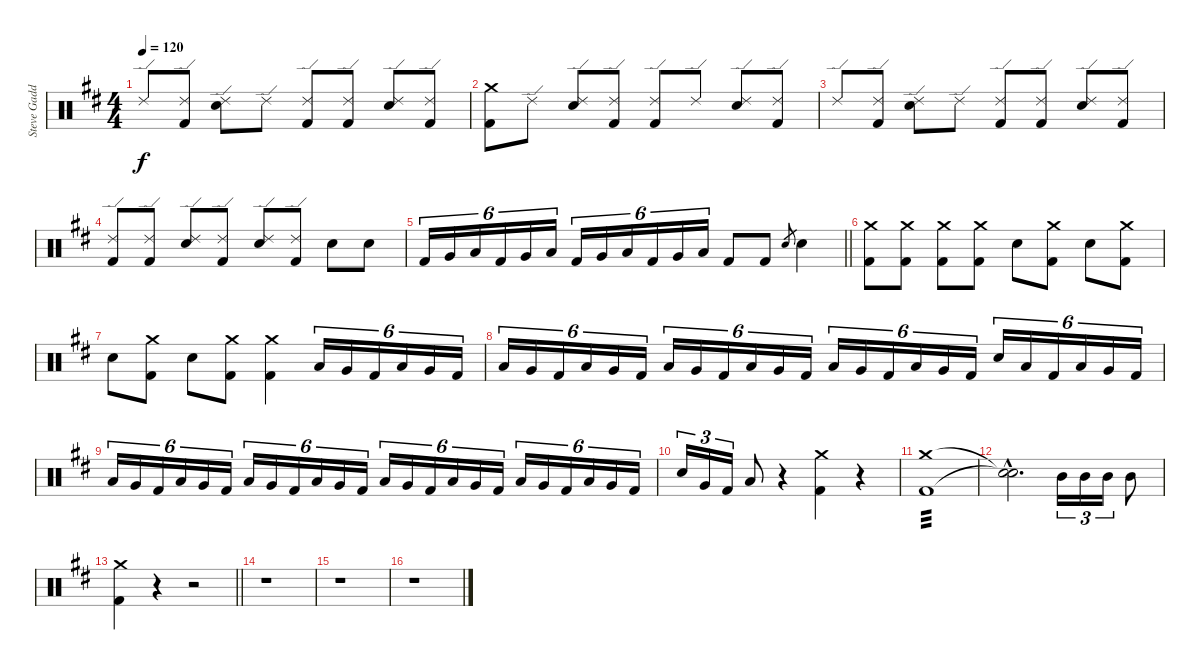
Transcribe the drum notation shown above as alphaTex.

\track ("Steve Gadd Drums" "Steve Gadd") {instrument percussion}
\staff {score}
\articulation defaults
\ts (4 4)
\tempo 120
\clef neutral
\ks d "Ride (edge) 2".8{dy f}
("Ride (edge) 2" "Kick (hit) 2").8 ("Ride (edge) 2" "Snare (hit) 2").8 "Ride (edge) 2".8 ("Ride (edge) 2" "Kick (hit) 2").8 ("Ride (edge) 2" "Kick (hit) 2").8 ("Ride (edge) 2" "Snare (hit) 2").8 ("Ride (edge) 2" "Kick (hit) 2").8 |
("Crash medium (hit)" "Kick (hit) 2").8 "Ride (edge) 2".8 ("Ride (edge) 2" "Snare (hit) 2").8 ("Ride (edge) 2" "Kick (hit) 2").8 ("Ride (edge) 2" "Kick (hit) 2").8 "Ride (edge) 2".8 ("Ride (edge) 2" "Snare (hit) 2").8 ("Ride (edge) 2" "Kick (hit) 2").8 |
"Ride (edge) 2".8 ("Ride (edge) 2" "Kick (hit) 2").8 ("Ride (edge) 2" "Snare (hit) 2").8 "Ride (edge) 2".8 ("Ride (edge) 2" "Kick (hit) 2").8 ("Ride (edge) 2" "Kick (hit) 2").8 ("Ride (edge) 2" "Snare (hit) 2").8 ("Ride (edge) 2" "Kick (hit) 2").8 |
("Ride (edge) 2" "Kick (hit) 2").8 ("Ride (edge) 2" "Kick (hit) 2").8 ("Ride (edge) 2" "Snare (hit) 2").8 ("Ride (edge) 2" "Kick (hit) 2").8 ("Ride (edge) 2" "Snare (hit) 2").8 ("Ride (edge) 2" "Kick (hit) 2").8 "Snare (hit) 2".8 "Snare (hit) 2".8 |
\barLineRight lightlight "Kick (hit) 2".16{tu (6 4)} "Very Low Tom (hit)".16{tu (6 4)} "Low Tom (hit)".16{tu (6 4)} "Kick (hit) 2".16{tu (6 4)} "Very Low Tom (hit)".16{tu (6 4)} "Low Tom (hit)".16{tu (6 4)} "Kick (hit) 2".16{tu (6 4)} "Very Low Tom (hit)".16{tu (6 4)} "Low Tom (hit)".16{tu (6 4)} "Kick (hit) 2".16{tu (6 4)} "Very Low Tom (hit)".16{tu (6 4)} "Low Tom (hit)".16{tu (6 4)} "Kick (hit) 2".8 "Kick (hit) 2".8 "Snare (hit) 2".8{gr} "Snare (hit) 2".4
|
("Crash medium (hit)" "Kick (hit) 2").8 ("Crash medium (hit)" "Kick (hit) 2").8 ("Crash medium (hit)" "Kick (hit) 2").8 ("Crash medium (hit)" "Kick (hit) 2").8 "Snare (hit) 2".8 ("Crash medium (hit)" "Kick (hit) 2").8 "Snare (hit) 2".8 ("Crash medium (hit)" "Kick (hit) 2").8 |
"Snare (hit) 2".8 ("Crash medium (hit)" "Kick (hit) 2").8 "Snare (hit) 2".8 ("Crash medium (hit)" "Kick (hit) 2").8 ("Crash medium (hit)" "Kick (hit) 2").4 "Low Tom (hit)".16{tu (6 4)} "Very Low Tom (hit)".16{tu (6 4)} "Kick (hit) 2".16{tu (6 4)} "Low Tom (hit)".16{tu (6 4)} "Very Low Tom (hit)".16{tu (6 4)} "Kick (hit) 2".16{tu (6 4)} |
"Low Tom (hit)".16{tu (6 4)} "Very Low Tom (hit)".16{tu (6 4)} "Kick (hit) 2".16{tu (6 4)} "Low Tom (hit)".16{tu (6 4)} "Very Low Tom (hit)".16{tu (6 4)} "Kick (hit) 2".16{tu (6 4)} "Low Tom (hit)".16{tu (6 4)} "Very Low Tom (hit)".16{tu (6 4)} "Kick (hit) 2".16{tu (6 4)} "Low Tom (hit)".16{tu (6 4)} "Very Low Tom (hit)".16{tu (6 4)} "Kick (hit) 2".16{tu (6 4)} "Low Tom (hit)".16{tu (6 4)} "Very Low Tom (hit)".16{tu (6 4)} "Kick (hit) 2".16{tu (6 4)} "Low Tom (hit)".16{tu (6 4)} "Very Low Tom (hit)".16{tu (6 4)} "Kick (hit) 2".16{tu (6 4)} "Snare (hit) 2".16{tu (6 4)} "Low Tom (hit)".16{tu (6 4)} "Kick (hit) 2".16{tu (6 4)} "Low Tom (hit)".16{tu (6 4)} "Very Low Tom (hit)".16{tu (6 4)} "Kick (hit) 2".16{tu (6 4)} |
"Low Tom (hit)".16{tu (6 4)} "Very Low Tom (hit)".16{tu (6 4)} "Kick (hit) 2".16{tu (6 4)} "Low Tom (hit)".16{tu (6 4)} "Very Low Tom (hit)".16{tu (6 4)} "Kick (hit) 2".16{tu (6 4)} "Low Tom (hit)".16{tu (6 4)} "Very Low Tom (hit)".16{tu (6 4)} "Kick (hit) 2".16{tu (6 4)} "Low Tom (hit)".16{tu (6 4)} "Very Low Tom (hit)".16{tu (6 4)} "Kick (hit) 2".16{tu (6 4)} "Low Tom (hit)".16{tu (6 4)} "Very Low Tom (hit)".16{tu (6 4)} "Kick (hit) 2".16{tu (6 4)} "Low Tom (hit)".16{tu (6 4)} "Very Low Tom (hit)".16{tu (6 4)} "Kick (hit) 2".16{tu (6 4)} "Low Tom (hit)".16{tu (6 4)} "Very Low Tom (hit)".16{tu (6 4)} "Kick (hit) 2".16{tu (6 4)} "Low Tom (hit)".16{tu (6 4)} "Very Low Tom (hit)".16{tu (6 4)} "Kick (hit) 2".16{tu (6 4)} |
"Snare (hit) 2".16{tu (3 2)} "Very Low Tom (hit)".16{tu (3 2)} "Kick (hit) 2".16{tu (3 2)} "Low Tom (hit)".8 r.4 ("Crash medium (hit)" "Kick (hit) 2").4 r.4 |
("Crash medium (hit)" "Kick (hit) 2").1{tp 3} |
("Snare (hit)"{hac t} "Snare (hit)"{hac t}).2{d} "Mid Tom (hit)".16{tu (3 2)} "Mid Tom (hit)".16{tu (3 2)} "Mid Tom (hit)".16{tu (3 2)} "Mid Tom (hit)".8 |
\barLineRight lightlight
("Crash medium (hit)" "Kick (hit) 2").4 r.4 r.2 |
r.1 |
r.1 |
r.1
